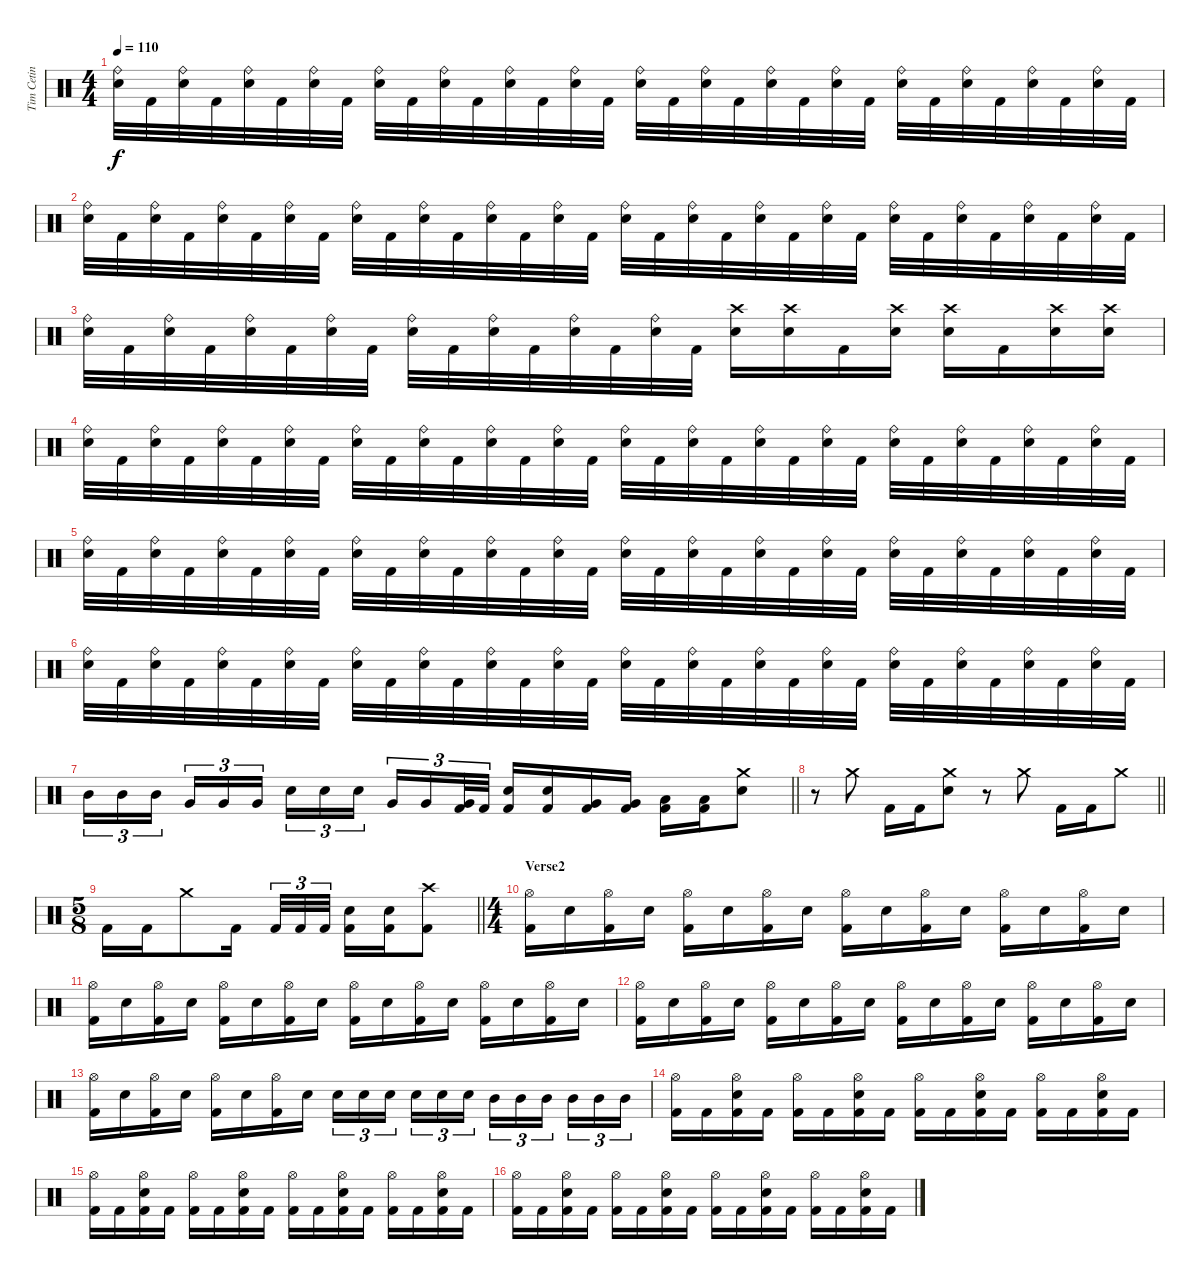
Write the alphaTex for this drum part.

\track ("Tim Cetin" "Tim Cetin") {instrument percussion}
\staff {score}
\articulation defaults
\ts (4 4)
\tempo 110
\clef neutral
\ks c
("Ride (bell)" "Snare (hit) 2").32{dy f} "Kick (hit) 2".32 ("Ride (bell)" "Snare (hit) 2").32 "Kick (hit) 2".32 ("Ride (bell)" "Snare (hit) 2").32 "Kick (hit) 2".32 ("Ride (bell)" "Snare (hit) 2").32 "Kick (hit) 2".32 ("Ride (bell)" "Snare (hit) 2").32 "Kick (hit) 2".32 ("Ride (bell)" "Snare (hit) 2").32 "Kick (hit) 2".32 ("Ride (bell)" "Snare (hit) 2").32 "Kick (hit) 2".32 ("Ride (bell)" "Snare (hit) 2").32 "Kick (hit) 2".32 ("Ride (bell)" "Snare (hit) 2").32 "Kick (hit) 2".32 ("Ride (bell)" "Snare (hit) 2").32 "Kick (hit) 2".32 ("Ride (bell)" "Snare (hit) 2").32 "Kick (hit) 2".32 ("Ride (bell)" "Snare (hit) 2").32 "Kick (hit) 2".32 ("Ride (bell)" "Snare (hit) 2").32 "Kick (hit) 2".32 ("Ride (bell)" "Snare (hit) 2").32 "Kick (hit) 2".32 ("Ride (bell)" "Snare (hit) 2").32 "Kick (hit) 2".32 ("Ride (bell)" "Snare (hit) 2").32 "Kick (hit) 2".32 |
("Ride (bell)" "Snare (hit) 2").32 "Kick (hit) 2".32 ("Ride (bell)" "Snare (hit) 2").32 "Kick (hit) 2".32 ("Ride (bell)" "Snare (hit) 2").32 "Kick (hit) 2".32 ("Ride (bell)" "Snare (hit) 2").32 "Kick (hit) 2".32 ("Ride (bell)" "Snare (hit) 2").32 "Kick (hit) 2".32 ("Ride (bell)" "Snare (hit) 2").32 "Kick (hit) 2".32 ("Ride (bell)" "Snare (hit) 2").32 "Kick (hit) 2".32 ("Ride (bell)" "Snare (hit) 2").32 "Kick (hit) 2".32 ("Ride (bell)" "Snare (hit) 2").32 "Kick (hit) 2".32 ("Ride (bell)" "Snare (hit) 2").32 "Kick (hit) 2".32 ("Ride (bell)" "Snare (hit) 2").32 "Kick (hit) 2".32 ("Ride (bell)" "Snare (hit) 2").32 "Kick (hit) 2".32 ("Ride (bell)" "Snare (hit) 2").32 "Kick (hit) 2".32 ("Ride (bell)" "Snare (hit) 2").32 "Kick (hit) 2".32 ("Ride (bell)" "Snare (hit) 2").32 "Kick (hit) 2".32 ("Ride (bell)" "Snare (hit) 2").32 "Kick (hit) 2".32 |
("Ride (bell)" "Snare (hit) 2").32 "Kick (hit) 2".32 ("Ride (bell)" "Snare (hit) 2").32 "Kick (hit) 2".32 ("Ride (bell)" "Snare (hit) 2").32 "Kick (hit) 2".32 ("Ride (bell)" "Snare (hit) 2").32 "Kick (hit) 2".32 ("Ride (bell)" "Snare (hit) 2").32 "Kick (hit) 2".32 ("Ride (bell)" "Snare (hit) 2").32 "Kick (hit) 2".32 ("Ride (bell)" "Snare (hit) 2").32 "Kick (hit) 2".32 ("Ride (bell)" "Snare (hit) 2").32 "Kick (hit) 2".32 ("Crash high (hit)" "Snare (hit) 2").16 ("Crash high (hit)" "Snare (hit) 2").16 "Kick (hit) 2".16 ("Crash high (hit)" "Snare (hit) 2").16 ("Crash high (hit)" "Snare (hit) 2").16 "Kick (hit) 2".16 ("Crash high (hit)" "Snare (hit) 2").16 ("Crash high (hit)" "Snare (hit) 2").16 |
("Ride (bell)" "Snare (hit) 2").32 "Kick (hit) 2".32 ("Ride (bell)" "Snare (hit) 2").32 "Kick (hit) 2".32 ("Ride (bell)" "Snare (hit) 2").32 "Kick (hit) 2".32 ("Ride (bell)" "Snare (hit) 2").32 "Kick (hit) 2".32 ("Ride (bell)" "Snare (hit) 2").32 "Kick (hit) 2".32 ("Ride (bell)" "Snare (hit) 2").32 "Kick (hit) 2".32 ("Ride (bell)" "Snare (hit) 2").32 "Kick (hit) 2".32 ("Ride (bell)" "Snare (hit) 2").32 "Kick (hit) 2".32 ("Ride (bell)" "Snare (hit) 2").32 "Kick (hit) 2".32 ("Ride (bell)" "Snare (hit) 2").32 "Kick (hit) 2".32 ("Ride (bell)" "Snare (hit) 2").32 "Kick (hit) 2".32 ("Ride (bell)" "Snare (hit) 2").32 "Kick (hit) 2".32 ("Ride (bell)" "Snare (hit) 2").32 "Kick (hit) 2".32 ("Ride (bell)" "Snare (hit) 2").32 "Kick (hit) 2".32 ("Ride (bell)" "Snare (hit) 2").32 "Kick (hit) 2".32 ("Ride (bell)" "Snare (hit) 2").32 "Kick (hit) 2".32 |
("Ride (bell)" "Snare (hit) 2").32 "Kick (hit) 2".32 ("Ride (bell)" "Snare (hit) 2").32 "Kick (hit) 2".32 ("Ride (bell)" "Snare (hit) 2").32 "Kick (hit) 2".32 ("Ride (bell)" "Snare (hit) 2").32 "Kick (hit) 2".32 ("Ride (bell)" "Snare (hit) 2").32 "Kick (hit) 2".32 ("Ride (bell)" "Snare (hit) 2").32 "Kick (hit) 2".32 ("Ride (bell)" "Snare (hit) 2").32 "Kick (hit) 2".32 ("Ride (bell)" "Snare (hit) 2").32 "Kick (hit) 2".32 ("Ride (bell)" "Snare (hit) 2").32 "Kick (hit) 2".32 ("Ride (bell)" "Snare (hit) 2").32 "Kick (hit) 2".32 ("Ride (bell)" "Snare (hit) 2").32 "Kick (hit) 2".32 ("Ride (bell)" "Snare (hit) 2").32 "Kick (hit) 2".32 ("Ride (bell)" "Snare (hit) 2").32 "Kick (hit) 2".32 ("Ride (bell)" "Snare (hit) 2").32 "Kick (hit) 2".32 ("Ride (bell)" "Snare (hit) 2").32 "Kick (hit) 2".32 ("Ride (bell)" "Snare (hit) 2").32 "Kick (hit) 2".32 |
("Ride (bell)" "Snare (hit) 2").32 "Kick (hit) 2".32 ("Ride (bell)" "Snare (hit) 2").32 "Kick (hit) 2".32 ("Ride (bell)" "Snare (hit) 2").32 "Kick (hit) 2".32 ("Ride (bell)" "Snare (hit) 2").32 "Kick (hit) 2".32 ("Ride (bell)" "Snare (hit) 2").32 "Kick (hit) 2".32 ("Ride (bell)" "Snare (hit) 2").32 "Kick (hit) 2".32 ("Ride (bell)" "Snare (hit) 2").32 "Kick (hit) 2".32 ("Ride (bell)" "Snare (hit) 2").32 "Kick (hit) 2".32 ("Ride (bell)" "Snare (hit) 2").32 "Kick (hit) 2".32 ("Ride (bell)" "Snare (hit) 2").32 "Kick (hit) 2".32 ("Ride (bell)" "Snare (hit) 2").32 "Kick (hit) 2".32 ("Ride (bell)" "Snare (hit) 2").32 "Kick (hit) 2".32 ("Ride (bell)" "Snare (hit) 2").32 "Kick (hit) 2".32 ("Ride (bell)" "Snare (hit) 2").32 "Kick (hit) 2".32 ("Ride (bell)" "Snare (hit) 2").32 "Kick (hit) 2".32 ("Ride (bell)" "Snare (hit) 2").32 "Kick (hit) 2".32 |
\barLineRight lightlight "Mid Tom (hit)".16{tu (3 2)} "Mid Tom (hit)".16{tu (3 2)} "Mid Tom (hit)".16{tu (3 2) beam splitsecondary} "Very Low Tom (hit)".16{tu (3 2)} "Very Low Tom (hit)".16{tu (3 2)} "Very Low Tom (hit)".16{tu (3 2)} "Snare (hit) 2".16{tu (3 2)} "Snare (hit) 2".16{tu (3 2)} "Snare (hit) 2".16{tu (3 2) beam splitsecondary} "Very Low Tom (hit)".16{tu (3 2)} "Very Low Tom (hit)".16{tu (3 2)}
("Very Low Tom (hit)" "Kick (hit) 2").32{tu (3 2)} "Kick (hit) 2".32{tu (3 2)} ("Snare (hit) 2" "Kick (hit) 2").16 ("Snare (hit) 2" "Kick (hit) 2").16 ("Very Low Tom (hit)" "Kick (hit) 2").16 ("Very Low Tom (hit)" "Kick (hit) 2").16 ("Low Floor Tom (hit)" "Kick (hit) 2").16 ("Low Floor Tom (hit)" "Kick (hit) 2").16 ("Crash medium (hit)" "Snare (hit) 2").8 |
\barLineRight lightlight
r.8 "Crash medium (hit)".8 "Kick (hit) 2".16 "Kick (hit) 2".16 ("Crash medium (hit)" "Snare (hit) 2").8 r.8 "Crash medium (hit)".8 "Kick (hit) 2".16 "Kick (hit) 2".16 "Crash medium (hit)".8 |
\ts (5 8)
\barLineRight lightlight "Kick (hit) 2".16 "Kick (hit) 2".16 "Crash medium (hit)".8 "Kick (hit) 2".16{beam splitsecondary} "Kick (hit) 2".32{tu (3 2)} "Kick (hit) 2".32{tu (3 2)} "Kick (hit) 2".32{tu (3 2)}
("Snare (hit) 2" "Kick (hit) 2").16 ("Snare (hit) 2" "Kick (hit) 2").16 ("Crash high (hit)" "Kick (hit) 2").8 |
\ts (4 4)
\section ("" "Verse2")
("Hi-Hat (open)" "Kick (hit) 2").16 "Snare (hit) 2".16 ("Hi-Hat (open)" "Kick (hit) 2").16 "Snare (hit) 2".16 ("Hi-Hat (open)" "Kick (hit) 2").16 "Snare (hit) 2".16 ("Hi-Hat (open)" "Kick (hit) 2").16 "Snare (hit) 2".16 ("Hi-Hat (open)" "Kick (hit) 2").16 "Snare (hit) 2".16 ("Hi-Hat (open)" "Kick (hit) 2").16 "Snare (hit) 2".16 ("Hi-Hat (open)" "Kick (hit) 2").16 "Snare (hit) 2".16 ("Hi-Hat (open)" "Kick (hit) 2").16 "Snare (hit) 2".16 |
("Hi-Hat (open)" "Kick (hit) 2").16 "Snare (hit) 2".16 ("Hi-Hat (open)" "Kick (hit) 2").16 "Snare (hit) 2".16 ("Hi-Hat (open)" "Kick (hit) 2").16 "Snare (hit) 2".16 ("Hi-Hat (open)" "Kick (hit) 2").16 "Snare (hit) 2".16 ("Hi-Hat (open)" "Kick (hit) 2").16 "Snare (hit) 2".16 ("Hi-Hat (open)" "Kick (hit) 2").16 "Snare (hit) 2".16 ("Hi-Hat (open)" "Kick (hit) 2").16 "Snare (hit) 2".16 ("Hi-Hat (open)" "Kick (hit) 2").16 "Snare (hit) 2".16 |
("Hi-Hat (open)" "Kick (hit) 2").16 "Snare (hit) 2".16 ("Hi-Hat (open)" "Kick (hit) 2").16 "Snare (hit) 2".16 ("Hi-Hat (open)" "Kick (hit) 2").16 "Snare (hit) 2".16 ("Hi-Hat (open)" "Kick (hit) 2").16 "Snare (hit) 2".16 ("Hi-Hat (open)" "Kick (hit) 2").16 "Snare (hit) 2".16 ("Hi-Hat (open)" "Kick (hit) 2").16 "Snare (hit) 2".16 ("Hi-Hat (open)" "Kick (hit) 2").16 "Snare (hit) 2".16 ("Hi-Hat (open)" "Kick (hit) 2").16 "Snare (hit) 2".16 |
("Hi-Hat (open)" "Kick (hit) 2").16 "Snare (hit) 2".16 ("Hi-Hat (open)" "Kick (hit) 2").16 "Snare (hit) 2".16 ("Hi-Hat (open)" "Kick (hit) 2").16 "Snare (hit) 2".16 ("Hi-Hat (open)" "Kick (hit) 2").16 "Snare (hit) 2".16 "Snare (hit) 2".16{tu (3 2)} "Snare (hit) 2".16{tu (3 2)} "Snare (hit) 2".16{tu (3 2) beam splitsecondary} "Snare (hit) 2".16{tu (3 2)} "Snare (hit) 2".16{tu (3 2)} "Snare (hit) 2".16{tu (3 2)} "Mid Tom (hit)".16{tu (3 2)} "Mid Tom (hit)".16{tu (3 2)} "Mid Tom (hit)".16{tu (3 2) beam splitsecondary} "Mid Tom (hit)".16{tu (3 2)} "Mid Tom (hit)".16{tu (3 2)} "Mid Tom (hit)".16{tu (3 2)} |
("Hi-Hat (open)" "Kick (hit) 2").16 "Kick (hit) 2".16 ("Hi-Hat (open)" "Snare (hit) 2" "Kick (hit) 2").16 "Kick (hit) 2".16 ("Hi-Hat (open)" "Kick (hit) 2").16 "Kick (hit) 2".16 ("Hi-Hat (open)" "Snare (hit) 2" "Kick (hit) 2").16 "Kick (hit) 2".16 ("Hi-Hat (open)" "Kick (hit) 2").16 "Kick (hit) 2".16 ("Hi-Hat (open)" "Snare (hit) 2" "Kick (hit) 2").16 "Kick (hit) 2".16 ("Hi-Hat (open)" "Kick (hit) 2").16 "Kick (hit) 2".16 ("Hi-Hat (open)" "Snare (hit) 2" "Kick (hit) 2").16 "Kick (hit) 2".16 |
("Hi-Hat (open)" "Kick (hit) 2").16 "Kick (hit) 2".16 ("Hi-Hat (open)" "Snare (hit) 2" "Kick (hit) 2").16 "Kick (hit) 2".16 ("Hi-Hat (open)" "Kick (hit) 2").16 "Kick (hit) 2".16 ("Hi-Hat (open)" "Snare (hit) 2" "Kick (hit) 2").16 "Kick (hit) 2".16 ("Hi-Hat (open)" "Kick (hit) 2").16 "Kick (hit) 2".16 ("Hi-Hat (open)" "Snare (hit) 2" "Kick (hit) 2").16 "Kick (hit) 2".16 ("Hi-Hat (open)" "Kick (hit) 2").16 "Kick (hit) 2".16 ("Hi-Hat (open)" "Snare (hit) 2" "Kick (hit) 2").16 "Kick (hit) 2".16 |
("Hi-Hat (open)" "Kick (hit) 2").16 "Kick (hit) 2".16 ("Hi-Hat (open)" "Snare (hit) 2" "Kick (hit) 2").16 "Kick (hit) 2".16 ("Hi-Hat (open)" "Kick (hit) 2").16 "Kick (hit) 2".16 ("Hi-Hat (open)" "Snare (hit) 2" "Kick (hit) 2").16 "Kick (hit) 2".16 ("Hi-Hat (open)" "Kick (hit) 2").16 "Kick (hit) 2".16 ("Hi-Hat (open)" "Snare (hit) 2" "Kick (hit) 2").16 "Kick (hit) 2".16 ("Hi-Hat (open)" "Kick (hit) 2").16 "Kick (hit) 2".16 ("Hi-Hat (open)" "Snare (hit) 2" "Kick (hit) 2").16 "Kick (hit) 2".16
